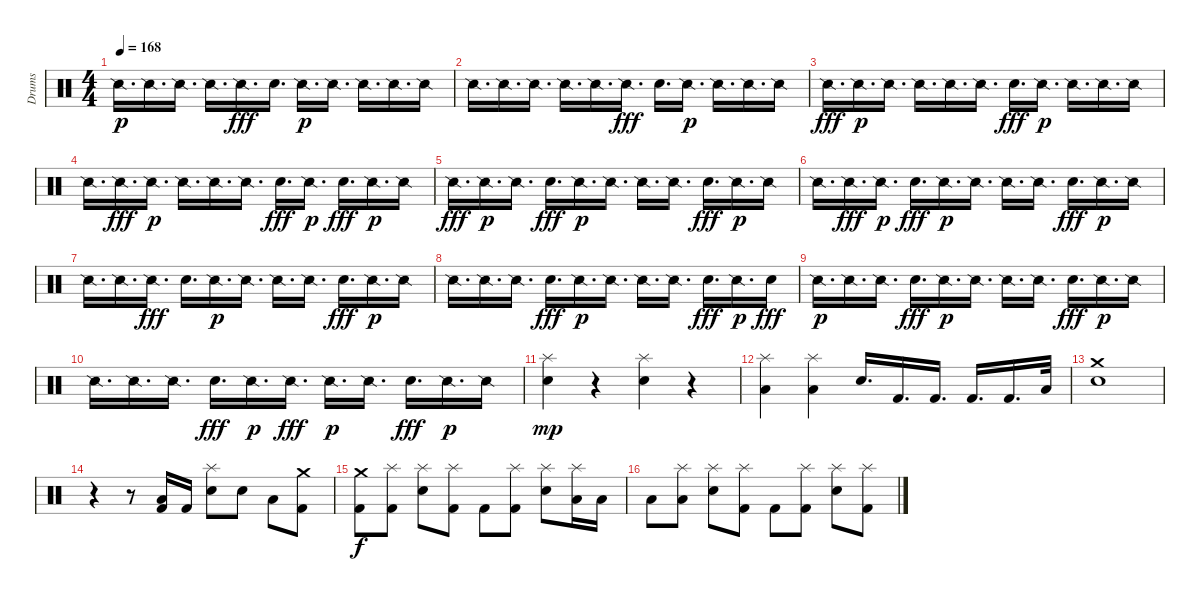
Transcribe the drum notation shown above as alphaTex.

\track ("Drums" "Drums") {instrument percussion}
\staff {score}
\articulation defaults
\ts (4 4)
\tempo 168
\clef neutral
\ks c "Snare (side stick) 2".16{d dy p} "Snare (side stick) 2".16{d} "Snare (side stick) 2".16{d} "Snare (side stick) 2".16{d} "Snare (side stick) 2".16{d dy fff} "Electric Snare (hit)".16{d} "Snare (side stick) 2".16{d dy p} "Snare (side stick) 2".16{d} "Snare (side stick) 2".16{d} "Snare (side stick) 2".16{d} "Snare (side stick) 2".16
|
"Snare (side stick) 2".16{d} "Snare (side stick) 2".16{d} "Snare (side stick) 2".16{d} "Snare (side stick) 2".16{d} "Snare (side stick) 2".16{d} "Snare (side stick) 2".16{d dy fff} "Electric Snare (hit)".16{d} "Snare (side stick) 2".16{d dy p} "Snare (side stick) 2".16{d} "Snare (side stick) 2".16{d} "Snare (side stick) 2".16 |
"Snare (side stick) 2".16{d dy fff} "Snare (side stick) 2".16{d dy p} "Snare (side stick) 2".16{d} "Snare (side stick) 2".16{d} "Snare (side stick) 2".16{d} "Snare (side stick) 2".16{d} "Electric Snare (hit)".16{d dy fff} "Snare (side stick) 2".16{d dy p} "Snare (side stick) 2".16{d} "Snare (side stick) 2".16{d} "Snare (side stick) 2".16 |
"Snare (side stick) 2".16{d} "Snare (side stick) 2".16{d dy fff} "Snare (side stick) 2".16{d dy p} "Snare (side stick) 2".16{d} "Snare (side stick) 2".16{d} "Snare (side stick) 2".16{d} "Electric Snare (hit)".16{d dy fff} "Snare (side stick) 2".16{d dy p} "Electric Snare (hit)".16{d dy fff} "Snare (side stick) 2".16{d dy p} "Snare (side stick) 2".16 |
"Snare (side stick) 2".16{d dy fff} "Snare (side stick) 2".16{d dy p} "Snare (side stick) 2".16{d} "Electric Snare (hit)".16{d dy fff} "Snare (side stick) 2".16{d dy p} "Snare (side stick) 2".16{d} "Snare (side stick) 2".16{d} "Snare (side stick) 2".16{d} "Electric Snare (hit)".16{d dy fff} "Snare (side stick) 2".16{d dy p} "Snare (side stick) 2".16 |
"Snare (side stick) 2".16{d} "Snare (side stick) 2".16{d dy fff} "Snare (side stick) 2".16{d dy p} "Electric Snare (hit)".16{d dy fff} "Snare (side stick) 2".16{d dy p} "Snare (side stick) 2".16{d} "Snare (side stick) 2".16{d} "Snare (side stick) 2".16{d} "Electric Snare (hit)".16{d dy fff} "Snare (side stick) 2".16{d dy p} "Snare (side stick) 2".16 |
"Snare (side stick) 2".16{d} "Snare (side stick) 2".16{d} "Snare (side stick) 2".16{d dy fff} "Electric Snare (hit)".16{d} "Snare (side stick) 2".16{d dy p} "Snare (side stick) 2".16{d} "Snare (side stick) 2".16{d} "Snare (side stick) 2".16{d} "Electric Snare (hit)".16{d dy fff} "Snare (side stick) 2".16{d dy p} "Snare (side stick) 2".16 |
"Snare (side stick) 2".16{d} "Snare (side stick) 2".16{d} "Snare (side stick) 2".16{d} "Electric Snare (hit)".16{d dy fff} "Snare (side stick) 2".16{d dy p} "Snare (side stick) 2".16{d} "Snare (side stick) 2".16{d} "Snare (side stick) 2".16{d} "Electric Snare (hit)".16{d dy fff} "Snare (side stick) 2".16{d dy p} "Electric Snare (hit)".16{dy fff} |
"Snare (side stick) 2".16{d dy p} "Snare (side stick) 2".16{d} "Snare (side stick) 2".16{d} "Electric Snare (hit)".16{d dy fff} "Snare (side stick) 2".16{d dy p} "Snare (side stick) 2".16{d} "Snare (side stick) 2".16{d} "Snare (side stick) 2".16{d} "Electric Snare (hit)".16{d dy fff} "Snare (side stick) 2".16{d dy p} "Snare (side stick) 2".16 |
"Snare (side stick) 2".16{d} "Snare (side stick) 2".16{d} "Snare (side stick) 2".16{d} "Electric Snare (hit)".16{d dy fff} "Snare (side stick) 2".16{d dy p} "Snare (side stick) 2".16{d dy fff} "Snare (side stick) 2".16{d dy p} "Snare (side stick) 2".16{d} "Electric Snare (hit)".16{d dy fff} "Snare (side stick) 2".16{d dy p} "Snare (side stick) 2".16 |
("Splash (hit)" "Electric Snare (hit)").4{dy mp} r.4 ("Splash (hit)" "Electric Snare (hit)").4 r.4 |
("Splash (hit)" "Low Floor Tom (hit)").4 ("Splash (hit)" "Low Floor Tom (hit)").4 "Electric Snare (hit)".16{d} "Kick (hit) 2".16{d} "Kick (hit) 2".16{d} "Kick (hit) 2".16{d} "Kick (hit) 2".16{d} "Low Floor Tom (hit)".32 |
("Crash medium (hit)" "Electric Snare (hit)").1 |
r.4 r.8 ("Low Floor Tom (hit)" "Kick (hit) 2").16 "Kick (hit) 2".16 ("Splash (hit)" "Electric Snare (hit)").8 "Electric Snare (hit)".8 "Low Floor Tom (hit)".8 ("Crash medium (hit)" "Kick (hit) 2").8 |
("Crash medium (hit)" "Kick (hit) 2").8{dy f} ("Splash (hit)" "Kick (hit) 2").8 ("Splash (hit)" "Electric Snare (hit)").8 ("Splash (hit)" "Kick (hit) 2").8 "Kick (hit) 2".8 ("Splash (hit)" "Kick (hit) 2").8 ("Splash (hit)" "Electric Snare (hit)").8 ("Splash (hit)" "Low Floor Tom (hit)").16 "Low Floor Tom (hit)".16 |
"Low Floor Tom (hit)".8 ("Splash (hit)" "Low Floor Tom (hit)").8 ("Splash (hit)" "Electric Snare (hit)").8 ("Splash (hit)" "Kick (hit) 2").8 "Kick (hit) 2".8 ("Splash (hit)" "Kick (hit) 2").8 ("Splash (hit)" "Electric Snare (hit)").8 ("Splash (hit)" "Kick (hit) 2").8
